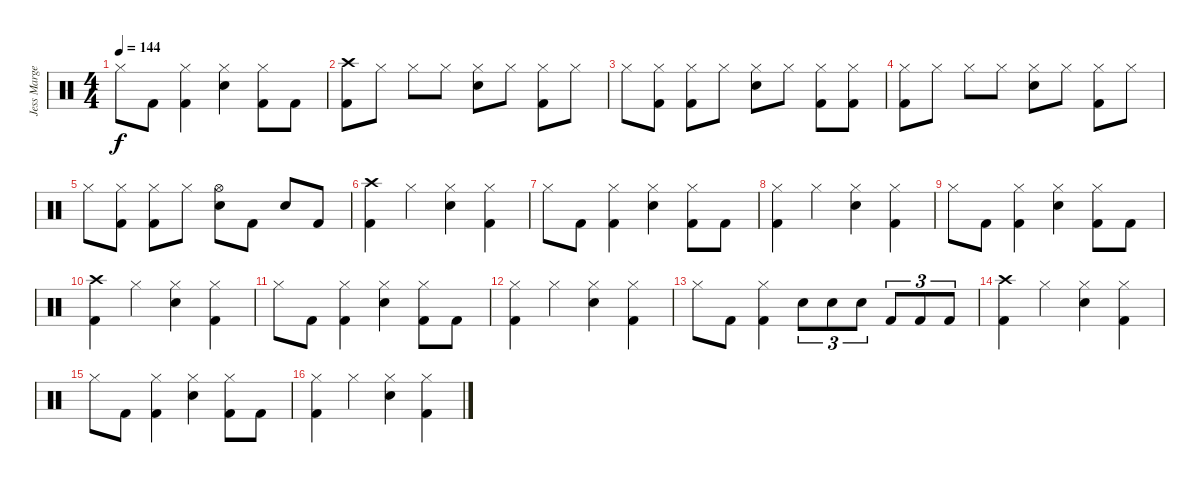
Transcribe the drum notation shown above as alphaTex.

\track ("Jess Margera" "Jess Marge") {instrument percussion}
\staff {score}
\articulation defaults
\ts (4 4)
\tempo 144
\clef neutral
\ks c "Hi-Hat (closed)".8{dy f} "Kick (hit) 2".8
("Hi-Hat (closed)" "Kick (hit) 2").4 ("Hi-Hat (closed)" "Electric Snare (hit)").4 ("Hi-Hat (closed)" "Kick (hit) 2").8 "Kick (hit) 2".8 |
("Crash high (hit)" "Kick (hit) 2").8 "Hi-Hat (closed)".8 "Hi-Hat (closed)".8 "Hi-Hat (closed)".8 ("Hi-Hat (closed)" "Electric Snare (hit)").8 "Hi-Hat (closed)".8 ("Hi-Hat (closed)" "Kick (hit) 2").8 "Hi-Hat (closed)".8 |
"Hi-Hat (closed)".8 ("Hi-Hat (closed)" "Kick (hit) 2").8 ("Hi-Hat (closed)" "Kick (hit) 2").8 "Hi-Hat (closed)".8 ("Hi-Hat (closed)" "Electric Snare (hit)").8 "Hi-Hat (closed)".8 ("Hi-Hat (closed)" "Kick (hit) 2").8 ("Hi-Hat (closed)" "Kick (hit) 2").8 |
("Hi-Hat (closed)" "Kick (hit) 2").8 "Hi-Hat (closed)".8 "Hi-Hat (closed)".8 "Hi-Hat (closed)".8 ("Hi-Hat (closed)" "Electric Snare (hit)").8 "Hi-Hat (closed)".8 ("Hi-Hat (closed)" "Kick (hit) 2").8 "Hi-Hat (closed)".8 |
"Hi-Hat (closed)".8 ("Hi-Hat (closed)" "Kick (hit) 2").8 ("Hi-Hat (closed)" "Kick (hit) 2").8 "Hi-Hat (closed)".8 ("Hi-Hat (open)" "Electric Snare (hit)").8 "Kick (hit) 2".8 "Electric Snare (hit)".8 "Kick (hit) 2".8 |
("Crash high (hit)" "Kick (hit) 2").4 "Hi-Hat (closed)".4 ("Hi-Hat (closed)" "Electric Snare (hit)").4 ("Hi-Hat (closed)" "Kick (hit) 2").4 |
"Hi-Hat (closed)".8 "Kick (hit) 2".8 ("Hi-Hat (closed)" "Kick (hit) 2").4 ("Hi-Hat (closed)" "Electric Snare (hit)").4 ("Hi-Hat (closed)" "Kick (hit) 2").8 "Kick (hit) 2".8 |
("Hi-Hat (closed)" "Kick (hit) 2").4 "Hi-Hat (closed)".4 ("Hi-Hat (closed)" "Electric Snare (hit)").4 ("Hi-Hat (closed)" "Kick (hit) 2").4 |
"Hi-Hat (closed)".8 "Kick (hit) 2".8 ("Hi-Hat (closed)" "Kick (hit) 2").4 ("Hi-Hat (closed)" "Electric Snare (hit)").4 ("Hi-Hat (closed)" "Kick (hit) 2").8 "Kick (hit) 2".8 |
("Crash high (hit)" "Kick (hit) 2").4 "Hi-Hat (closed)".4 ("Hi-Hat (closed)" "Electric Snare (hit)").4 ("Hi-Hat (closed)" "Kick (hit) 2").4 |
"Hi-Hat (closed)".8 "Kick (hit) 2".8 ("Hi-Hat (closed)" "Kick (hit) 2").4 ("Hi-Hat (closed)" "Electric Snare (hit)").4 ("Hi-Hat (closed)" "Kick (hit) 2").8 "Kick (hit) 2".8 |
("Hi-Hat (closed)" "Kick (hit) 2").4 "Hi-Hat (closed)".4 ("Hi-Hat (closed)" "Electric Snare (hit)").4 ("Hi-Hat (closed)" "Kick (hit) 2").4 |
"Hi-Hat (closed)".8 "Kick (hit) 2".8 ("Hi-Hat (closed)" "Kick (hit) 2").4 "Electric Snare (hit)".8{tu (3 2)} "Electric Snare (hit)".8{tu (3 2)} "Electric Snare (hit)".8{tu (3 2)} "Kick (hit) 2".8{tu (3 2)} "Kick (hit) 2".8{tu (3 2)} "Kick (hit) 2".8{tu (3 2)} |
("Crash high (hit)" "Kick (hit) 2").4 "Hi-Hat (closed)".4 ("Hi-Hat (closed)" "Electric Snare (hit)").4 ("Hi-Hat (closed)" "Kick (hit) 2").4 |
"Hi-Hat (closed)".8 "Kick (hit) 2".8 ("Hi-Hat (closed)" "Kick (hit) 2").4 ("Hi-Hat (closed)" "Electric Snare (hit)").4 ("Hi-Hat (closed)" "Kick (hit) 2").8 "Kick (hit) 2".8 |
("Hi-Hat (closed)" "Kick (hit) 2").4 "Hi-Hat (closed)".4 ("Hi-Hat (closed)" "Electric Snare (hit)").4 ("Hi-Hat (closed)" "Kick (hit) 2").4
